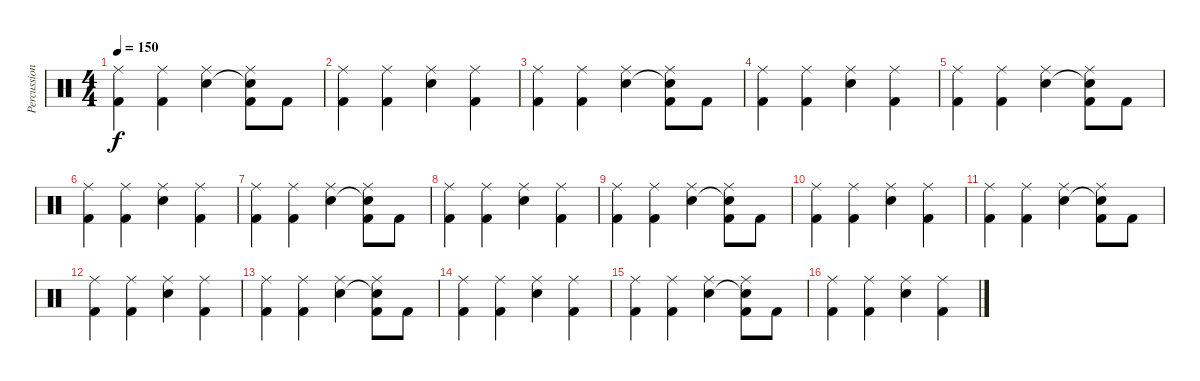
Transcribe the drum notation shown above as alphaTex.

\track ("Percussions" "Percussion") {instrument percussion}
\staff {score}
\articulation defaults
\ts (4 4)
\tempo 150
\clef neutral
\ks c
("Ride (middle)" "Kick (hit) 2").4{dy f} ("Ride (middle)" "Kick (hit) 2").4 ("Ride (middle)" "Electric Snare (hit)").4 ("Ride (middle)" "Snare (hit)"{t} "Kick (hit) 2").8 "Kick (hit) 2".8 |
("Ride (middle)" "Kick (hit) 2").4 ("Ride (middle)" "Kick (hit) 2").4 ("Ride (middle)" "Electric Snare (hit)").4 ("Ride (middle)" "Kick (hit) 2").4 |
("Ride (middle)" "Kick (hit) 2").4 ("Ride (middle)" "Kick (hit) 2").4 ("Ride (middle)" "Electric Snare (hit)").4 ("Ride (middle)" "Snare (hit)"{t} "Kick (hit) 2").8 "Kick (hit) 2".8 |
("Ride (middle)" "Kick (hit) 2").4 ("Ride (middle)" "Kick (hit) 2").4 ("Ride (middle)" "Electric Snare (hit)").4 ("Ride (middle)" "Kick (hit) 2").4 |
("Ride (middle)" "Kick (hit) 2").4 ("Ride (middle)" "Kick (hit) 2").4 ("Ride (middle)" "Electric Snare (hit)").4 ("Ride (middle)" "Snare (hit)"{t} "Kick (hit) 2").8 "Kick (hit) 2".8 |
("Ride (middle)" "Kick (hit) 2").4 ("Ride (middle)" "Kick (hit) 2").4 ("Ride (middle)" "Electric Snare (hit)").4 ("Ride (middle)" "Kick (hit) 2").4 |
("Ride (middle)" "Kick (hit) 2").4 ("Ride (middle)" "Kick (hit) 2").4 ("Ride (middle)" "Electric Snare (hit)").4 ("Ride (middle)" "Snare (hit)"{t} "Kick (hit) 2").8 "Kick (hit) 2".8 |
("Ride (middle)" "Kick (hit) 2").4 ("Ride (middle)" "Kick (hit) 2").4 ("Ride (middle)" "Electric Snare (hit)").4 ("Ride (middle)" "Kick (hit) 2").4 |
("Ride (middle)" "Kick (hit) 2").4 ("Ride (middle)" "Kick (hit) 2").4 ("Ride (middle)" "Electric Snare (hit)").4 ("Ride (middle)" "Snare (hit)"{t} "Kick (hit) 2").8 "Kick (hit) 2".8 |
("Ride (middle)" "Kick (hit) 2").4 ("Ride (middle)" "Kick (hit) 2").4 ("Ride (middle)" "Electric Snare (hit)").4 ("Ride (middle)" "Kick (hit) 2").4 |
("Ride (middle)" "Kick (hit) 2").4 ("Ride (middle)" "Kick (hit) 2").4 ("Ride (middle)" "Electric Snare (hit)").4 ("Ride (middle)" "Snare (hit)"{t} "Kick (hit) 2").8 "Kick (hit) 2".8 |
("Ride (middle)" "Kick (hit) 2").4 ("Ride (middle)" "Kick (hit) 2").4 ("Ride (middle)" "Electric Snare (hit)").4 ("Ride (middle)" "Kick (hit) 2").4 |
("Ride (middle)" "Kick (hit) 2").4 ("Ride (middle)" "Kick (hit) 2").4 ("Ride (middle)" "Electric Snare (hit)").4 ("Ride (middle)" "Snare (hit)"{t} "Kick (hit) 2").8 "Kick (hit) 2".8 |
("Ride (middle)" "Kick (hit) 2").4 ("Ride (middle)" "Kick (hit) 2").4 ("Ride (middle)" "Electric Snare (hit)").4 ("Ride (middle)" "Kick (hit) 2").4 |
("Ride (middle)" "Kick (hit) 2").4 ("Ride (middle)" "Kick (hit) 2").4 ("Ride (middle)" "Electric Snare (hit)").4 ("Ride (middle)" "Snare (hit)"{t} "Kick (hit) 2").8 "Kick (hit) 2".8 |
("Ride (middle)" "Kick (hit) 2").4 ("Ride (middle)" "Kick (hit) 2").4 ("Ride (middle)" "Electric Snare (hit)").4 ("Ride (middle)" "Kick (hit) 2").4
